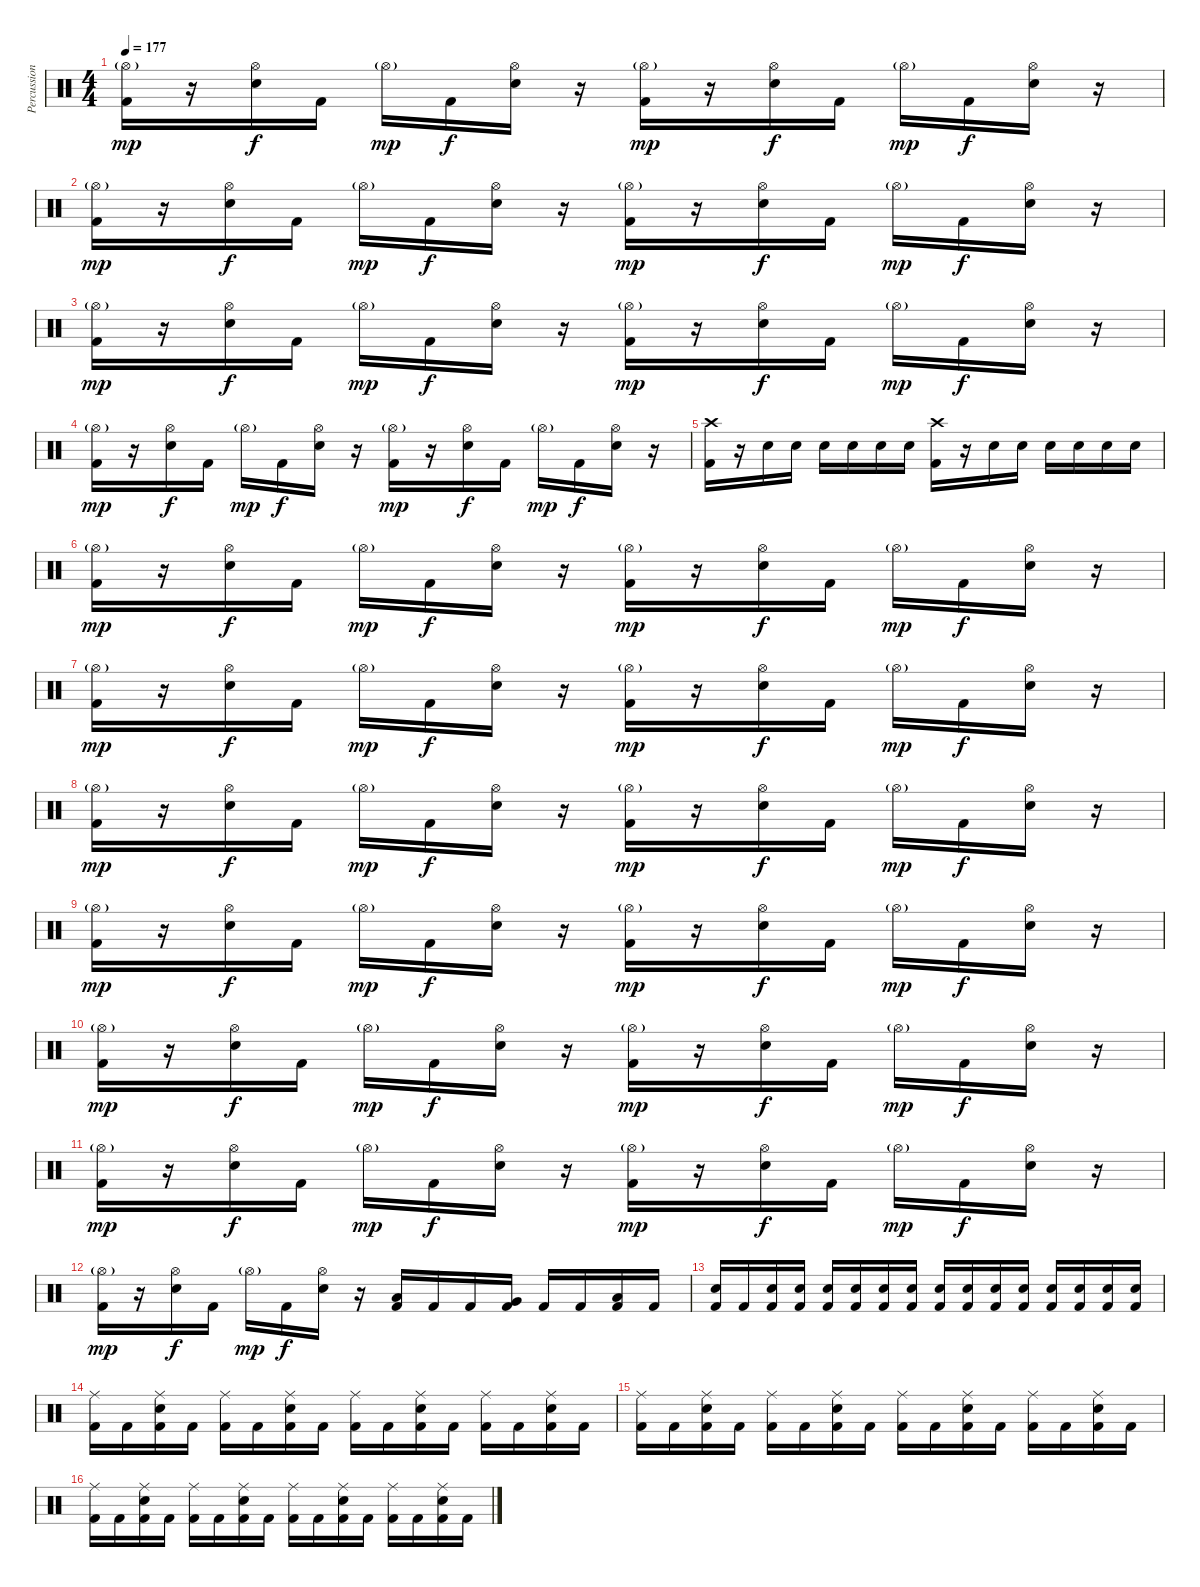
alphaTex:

\track ("Percussion" "Percussion") {instrument percussion}
\staff {score}
\articulation defaults
\ts (4 4)
\tempo 177
\clef neutral
\ks c
("Hi-Hat (open)"{g} "Kick (hit) 2").16{dy mp} r.16 ("Hi-Hat (open)" "Snare (hit) 2").16{dy f} "Kick (hit) 2".16 "Hi-Hat (open)"{g}.16{dy mp} "Kick (hit) 2".16{dy f} ("Hi-Hat (open)" "Snare (hit) 2").16 r.16 ("Hi-Hat (open)"{g} "Kick (hit) 2").16{dy mp} r.16 ("Hi-Hat (open)" "Snare (hit) 2").16{dy f} "Kick (hit) 2".16 "Hi-Hat (open)"{g}.16{dy mp} "Kick (hit) 2".16{dy f} ("Hi-Hat (open)" "Snare (hit) 2").16 r.16 |
("Hi-Hat (open)"{g} "Kick (hit) 2").16{dy mp} r.16 ("Hi-Hat (open)" "Snare (hit) 2").16{dy f} "Kick (hit) 2".16 "Hi-Hat (open)"{g}.16{dy mp} "Kick (hit) 2".16{dy f} ("Hi-Hat (open)" "Snare (hit) 2").16 r.16 ("Hi-Hat (open)"{g} "Kick (hit) 2").16{dy mp} r.16 ("Hi-Hat (open)" "Snare (hit) 2").16{dy f} "Kick (hit) 2".16 "Hi-Hat (open)"{g}.16{dy mp} "Kick (hit) 2".16{dy f} ("Hi-Hat (open)" "Snare (hit) 2").16 r.16 |
("Hi-Hat (open)"{g} "Kick (hit) 2").16{dy mp} r.16 ("Hi-Hat (open)" "Snare (hit) 2").16{dy f} "Kick (hit) 2".16 "Hi-Hat (open)"{g}.16{dy mp} "Kick (hit) 2".16{dy f} ("Hi-Hat (open)" "Snare (hit) 2").16 r.16 ("Hi-Hat (open)"{g} "Kick (hit) 2").16{dy mp} r.16 ("Hi-Hat (open)" "Snare (hit) 2").16{dy f} "Kick (hit) 2".16 "Hi-Hat (open)"{g}.16{dy mp} "Kick (hit) 2".16{dy f} ("Hi-Hat (open)" "Snare (hit) 2").16 r.16 |
("Hi-Hat (open)"{g} "Kick (hit) 2").16{dy mp} r.16 ("Hi-Hat (open)" "Snare (hit) 2").16{dy f} "Kick (hit) 2".16 "Hi-Hat (open)"{g}.16{dy mp} "Kick (hit) 2".16{dy f} ("Hi-Hat (open)" "Snare (hit) 2").16 r.16 ("Hi-Hat (open)"{g} "Kick (hit) 2").16{dy mp} r.16 ("Hi-Hat (open)" "Snare (hit) 2").16{dy f} "Kick (hit) 2".16 "Hi-Hat (open)"{g}.16{dy mp} "Kick (hit) 2".16{dy f} ("Hi-Hat (open)" "Snare (hit) 2").16 r.16 |
("Crash high (hit)" "Kick (hit) 2").16 r.16 "Snare (hit) 2".16 "Snare (hit) 2".16 "Snare (hit) 2".16 "Snare (hit) 2".16 "Snare (hit) 2".16 "Snare (hit) 2".16 ("Crash high (hit)" "Kick (hit) 2").16 r.16 "Snare (hit) 2".16 "Snare (hit) 2".16 "Snare (hit) 2".16 "Snare (hit) 2".16 "Snare (hit) 2".16 "Snare (hit) 2".16 |
("Hi-Hat (open)"{g} "Kick (hit) 2").16{dy mp} r.16 ("Hi-Hat (open)" "Snare (hit) 2").16{dy f} "Kick (hit) 2".16 "Hi-Hat (open)"{g}.16{dy mp} "Kick (hit) 2".16{dy f} ("Hi-Hat (open)" "Snare (hit) 2").16 r.16 ("Hi-Hat (open)"{g} "Kick (hit) 2").16{dy mp} r.16 ("Hi-Hat (open)" "Snare (hit) 2").16{dy f} "Kick (hit) 2".16 "Hi-Hat (open)"{g}.16{dy mp} "Kick (hit) 2".16{dy f} ("Hi-Hat (open)" "Snare (hit) 2").16 r.16 |
("Hi-Hat (open)"{g} "Kick (hit) 2").16{dy mp} r.16 ("Hi-Hat (open)" "Snare (hit) 2").16{dy f} "Kick (hit) 2".16 "Hi-Hat (open)"{g}.16{dy mp} "Kick (hit) 2".16{dy f} ("Hi-Hat (open)" "Snare (hit) 2").16 r.16 ("Hi-Hat (open)"{g} "Kick (hit) 2").16{dy mp} r.16 ("Hi-Hat (open)" "Snare (hit) 2").16{dy f} "Kick (hit) 2".16 "Hi-Hat (open)"{g}.16{dy mp} "Kick (hit) 2".16{dy f} ("Hi-Hat (open)" "Snare (hit) 2").16 r.16 |
("Hi-Hat (open)"{g} "Kick (hit) 2").16{dy mp} r.16 ("Hi-Hat (open)" "Snare (hit) 2").16{dy f} "Kick (hit) 2".16 "Hi-Hat (open)"{g}.16{dy mp} "Kick (hit) 2".16{dy f} ("Hi-Hat (open)" "Snare (hit) 2").16 r.16 ("Hi-Hat (open)"{g} "Kick (hit) 2").16{dy mp} r.16 ("Hi-Hat (open)" "Snare (hit) 2").16{dy f} "Kick (hit) 2".16 "Hi-Hat (open)"{g}.16{dy mp} "Kick (hit) 2".16{dy f} ("Hi-Hat (open)" "Snare (hit) 2").16 r.16 |
("Hi-Hat (open)"{g} "Kick (hit) 2").16{dy mp} r.16 ("Hi-Hat (open)" "Snare (hit) 2").16{dy f} "Kick (hit) 2".16 "Hi-Hat (open)"{g}.16{dy mp} "Kick (hit) 2".16{dy f} ("Hi-Hat (open)" "Snare (hit) 2").16 r.16 ("Hi-Hat (open)"{g} "Kick (hit) 2").16{dy mp} r.16 ("Hi-Hat (open)" "Snare (hit) 2").16{dy f} "Kick (hit) 2".16 "Hi-Hat (open)"{g}.16{dy mp} "Kick (hit) 2".16{dy f} ("Hi-Hat (open)" "Snare (hit) 2").16 r.16 |
("Hi-Hat (open)"{g} "Kick (hit) 2").16{dy mp} r.16 ("Hi-Hat (open)" "Snare (hit) 2").16{dy f} "Kick (hit) 2".16 "Hi-Hat (open)"{g}.16{dy mp} "Kick (hit) 2".16{dy f} ("Hi-Hat (open)" "Snare (hit) 2").16 r.16 ("Hi-Hat (open)"{g} "Kick (hit) 2").16{dy mp} r.16 ("Hi-Hat (open)" "Snare (hit) 2").16{dy f} "Kick (hit) 2".16 "Hi-Hat (open)"{g}.16{dy mp} "Kick (hit) 2".16{dy f} ("Hi-Hat (open)" "Snare (hit) 2").16 r.16 |
("Hi-Hat (open)"{g} "Kick (hit) 2").16{dy mp} r.16 ("Hi-Hat (open)" "Snare (hit) 2").16{dy f} "Kick (hit) 2".16 "Hi-Hat (open)"{g}.16{dy mp} "Kick (hit) 2".16{dy f} ("Hi-Hat (open)" "Snare (hit) 2").16 r.16 ("Hi-Hat (open)"{g} "Kick (hit) 2").16{dy mp} r.16 ("Hi-Hat (open)" "Snare (hit) 2").16{dy f} "Kick (hit) 2".16 "Hi-Hat (open)"{g}.16{dy mp} "Kick (hit) 2".16{dy f} ("Hi-Hat (open)" "Snare (hit) 2").16 r.16 |
("Hi-Hat (open)"{g} "Kick (hit) 2").16{dy mp} r.16 ("Hi-Hat (open)" "Snare (hit) 2").16{dy f} "Kick (hit) 2".16 "Hi-Hat (open)"{g}.16{dy mp} "Kick (hit) 2".16{dy f} ("Hi-Hat (open)" "Snare (hit) 2").16 r.16 ("Low Tom (hit)" "Kick (hit) 2").16 "Kick (hit) 2".16 "Kick (hit) 2".16 ("Very Low Tom (hit)" "Kick (hit) 2").16 "Kick (hit) 2".16 "Kick (hit) 2".16 ("Low Floor Tom (hit)" "Kick (hit) 2").16 "Kick (hit) 2".16 |
("Snare (hit) 2" "Kick (hit) 2").16 "Kick (hit) 2".16 ("Snare (hit) 2" "Kick (hit) 2").16 ("Snare (hit) 2" "Kick (hit) 2").16 ("Snare (hit) 2" "Kick (hit) 2").16 ("Snare (hit) 2" "Kick (hit) 2").16 ("Snare (hit) 2" "Kick (hit) 2").16 ("Snare (hit) 2" "Kick (hit) 2").16 ("Snare (hit) 2" "Kick (hit) 2").16 ("Snare (hit) 2" "Kick (hit) 2").16 ("Snare (hit) 2" "Kick (hit) 2").16 ("Snare (hit) 2" "Kick (hit) 2").16 ("Snare (hit) 2" "Kick (hit) 2").16 ("Snare (hit) 2" "Kick (hit) 2").16 ("Snare (hit) 2" "Kick (hit) 2").16 ("Snare (hit) 2" "Kick (hit) 2").16 |
("Ride (middle)" "Kick (hit) 2").16 "Kick (hit) 2".16 ("Ride (middle)" "Snare (hit) 2" "Kick (hit) 2").16 "Kick (hit) 2".16 ("Ride (middle)" "Kick (hit) 2").16 "Kick (hit) 2".16 ("Ride (middle)" "Snare (hit) 2" "Kick (hit) 2").16 "Kick (hit) 2".16 ("Ride (middle)" "Kick (hit) 2").16 "Kick (hit) 2".16 ("Ride (middle)" "Snare (hit) 2" "Kick (hit) 2").16 "Kick (hit) 2".16 ("Ride (middle)" "Kick (hit) 2").16 "Kick (hit) 2".16 ("Ride (middle)" "Snare (hit) 2" "Kick (hit) 2").16 "Kick (hit) 2".16 |
("Ride (middle)" "Kick (hit) 2").16 "Kick (hit) 2".16 ("Ride (middle)" "Snare (hit) 2" "Kick (hit) 2").16 "Kick (hit) 2".16 ("Ride (middle)" "Kick (hit) 2").16 "Kick (hit) 2".16 ("Ride (middle)" "Snare (hit) 2" "Kick (hit) 2").16 "Kick (hit) 2".16 ("Ride (middle)" "Kick (hit) 2").16 "Kick (hit) 2".16 ("Ride (middle)" "Snare (hit) 2" "Kick (hit) 2").16 "Kick (hit) 2".16 ("Ride (middle)" "Kick (hit) 2").16 "Kick (hit) 2".16 ("Ride (middle)" "Snare (hit) 2" "Kick (hit) 2").16 "Kick (hit) 2".16 |
("Ride (middle)" "Kick (hit) 2").16 "Kick (hit) 2".16 ("Ride (middle)" "Snare (hit) 2" "Kick (hit) 2").16 "Kick (hit) 2".16 ("Ride (middle)" "Kick (hit) 2").16 "Kick (hit) 2".16 ("Ride (middle)" "Snare (hit) 2" "Kick (hit) 2").16 "Kick (hit) 2".16 ("Ride (middle)" "Kick (hit) 2").16 "Kick (hit) 2".16 ("Ride (middle)" "Snare (hit) 2" "Kick (hit) 2").16 "Kick (hit) 2".16 ("Ride (middle)" "Kick (hit) 2").16 "Kick (hit) 2".16 ("Ride (middle)" "Snare (hit) 2" "Kick (hit) 2").16 "Kick (hit) 2".16
